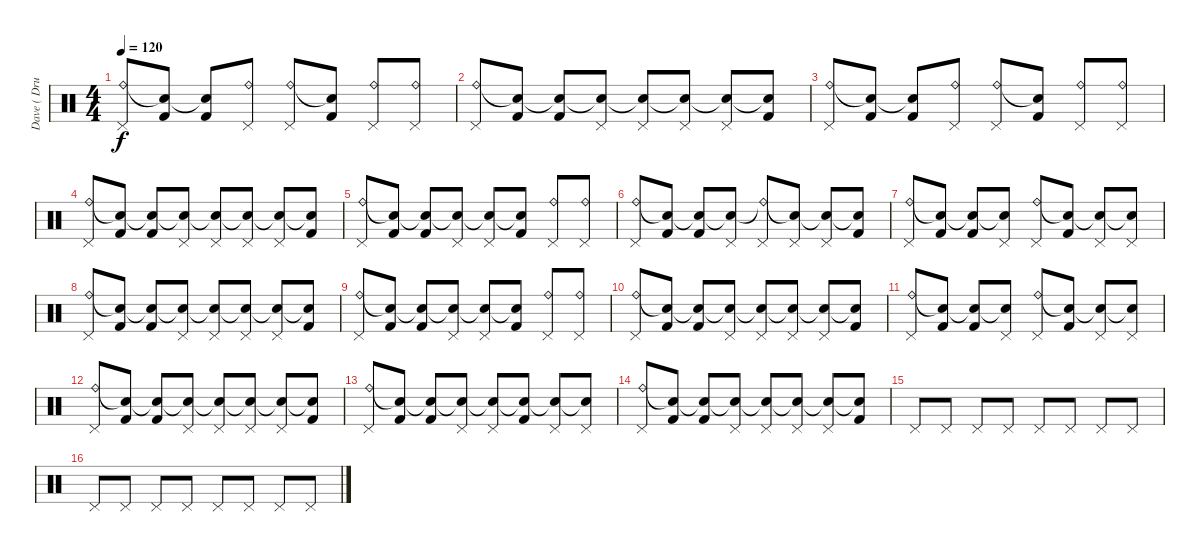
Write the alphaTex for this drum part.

\track ("Dave ( Drumm )" "Dave ( Dru") {instrument percussion}
\staff {score}
\articulation defaults
\ts (4 4)
\tempo 120
\clef neutral
\ks c
("Pedal Hi-Hat (hit)" "Ride (bell)").8{dy f} ("Kick (hit) 2" "Snare (hit)"{t}).8 ("Kick (hit) 2" "Snare (hit)"{t}).8 ("Pedal Hi-Hat (hit)" "Ride (bell)").8 ("Pedal Hi-Hat (hit)" "Ride (bell)").8 ("Kick (hit) 2" "Snare (hit)"{t}).8 ("Pedal Hi-Hat (hit)" "Ride (bell)").8 ("Pedal Hi-Hat (hit)" "Ride (bell)").8 |
("Pedal Hi-Hat (hit)" "Ride (bell)").8 ("Kick (hit) 2" "Snare (hit)"{t}).8 ("Kick (hit) 2" "Snare (hit)"{t}).8 ("Pedal Hi-Hat (hit)" "Snare (hit)"{t}).8 ("Pedal Hi-Hat (hit)" "Snare (hit)"{t}).8 ("Pedal Hi-Hat (hit)" "Snare (hit)"{t}).8 ("Pedal Hi-Hat (hit)" "Snare (hit)"{t}).8 ("Kick (hit) 2" "Snare (hit)"{t}).8 |
("Pedal Hi-Hat (hit)" "Ride (bell)").8 ("Kick (hit) 2" "Snare (hit)"{t}).8 ("Kick (hit) 2" "Snare (hit)"{t}).8 ("Pedal Hi-Hat (hit)" "Ride (bell)").8 ("Pedal Hi-Hat (hit)" "Ride (bell)").8 ("Kick (hit) 2" "Snare (hit)"{t}).8 ("Pedal Hi-Hat (hit)" "Ride (bell)").8 ("Pedal Hi-Hat (hit)" "Ride (bell)").8 |
("Pedal Hi-Hat (hit)" "Ride (bell)").8 ("Kick (hit) 2" "Snare (hit)"{t}).8 ("Kick (hit) 2" "Snare (hit)"{t}).8 ("Pedal Hi-Hat (hit)" "Snare (hit)"{t}).8 ("Pedal Hi-Hat (hit)" "Snare (hit)"{t}).8 ("Pedal Hi-Hat (hit)" "Snare (hit)"{t}).8 ("Pedal Hi-Hat (hit)" "Snare (hit)"{t}).8 ("Kick (hit) 2" "Snare (hit)"{t}).8 |
("Pedal Hi-Hat (hit)" "Ride (bell)").8 ("Kick (hit) 2" "Snare (hit)"{t}).8 ("Kick (hit) 2" "Snare (hit)"{t}).8 ("Pedal Hi-Hat (hit)" "Snare (hit)"{t}).8 ("Pedal Hi-Hat (hit)" "Snare (hit)"{t}).8 ("Kick (hit) 2" "Snare (hit)"{t}).8 ("Pedal Hi-Hat (hit)" "Ride (bell)").8 ("Pedal Hi-Hat (hit)" "Ride (bell)").8 |
("Pedal Hi-Hat (hit)" "Ride (bell)").8 ("Kick (hit) 2" "Snare (hit)"{t}).8 ("Kick (hit) 2" "Snare (hit)"{t}).8 ("Pedal Hi-Hat (hit)" "Snare (hit)"{t}).8 ("Pedal Hi-Hat (hit)" "Ride (bell)"{t}).8 ("Pedal Hi-Hat (hit)" "Snare (hit)"{t}).8 ("Pedal Hi-Hat (hit)" "Snare (hit)"{t}).8 ("Kick (hit) 2" "Snare (hit)"{t}).8 |
("Pedal Hi-Hat (hit)" "Ride (bell)").8 ("Kick (hit) 2" "Snare (hit)"{t}).8 ("Kick (hit) 2" "Snare (hit)"{t}).8 ("Pedal Hi-Hat (hit)" "Snare (hit)"{t}).8 ("Pedal Hi-Hat (hit)" "Ride (bell)").8 ("Kick (hit) 2" "Snare (hit)"{t}).8 ("Pedal Hi-Hat (hit)" "Snare (hit)"{t}).8 ("Pedal Hi-Hat (hit)" "Snare (hit)"{t}).8 |
("Pedal Hi-Hat (hit)" "Ride (bell)").8 ("Kick (hit) 2" "Snare (hit)"{t}).8 ("Kick (hit) 2" "Snare (hit)"{t}).8 ("Pedal Hi-Hat (hit)" "Snare (hit)"{t}).8 ("Pedal Hi-Hat (hit)" "Snare (hit)"{t}).8 ("Pedal Hi-Hat (hit)" "Snare (hit)"{t}).8 ("Pedal Hi-Hat (hit)" "Snare (hit)"{t}).8 ("Kick (hit) 2" "Snare (hit)"{t}).8 |
("Pedal Hi-Hat (hit)" "Ride (bell)").8 ("Kick (hit) 2" "Snare (hit)"{t}).8 ("Kick (hit) 2" "Snare (hit)"{t}).8 ("Pedal Hi-Hat (hit)" "Snare (hit)"{t}).8 ("Pedal Hi-Hat (hit)" "Snare (hit)"{t}).8 ("Kick (hit) 2" "Snare (hit)"{t}).8 ("Pedal Hi-Hat (hit)" "Ride (bell)").8 ("Pedal Hi-Hat (hit)" "Ride (bell)").8 |
("Pedal Hi-Hat (hit)" "Ride (bell)").8 ("Kick (hit) 2" "Snare (hit)"{t}).8 ("Kick (hit) 2" "Snare (hit)"{t}).8 ("Pedal Hi-Hat (hit)" "Snare (hit)"{t}).8 ("Pedal Hi-Hat (hit)" "Snare (hit)"{t}).8 ("Pedal Hi-Hat (hit)" "Snare (hit)"{t}).8 ("Pedal Hi-Hat (hit)" "Snare (hit)"{t}).8 ("Kick (hit) 2" "Snare (hit)"{t}).8 |
("Pedal Hi-Hat (hit)" "Ride (bell)").8 ("Kick (hit) 2" "Snare (hit)"{t}).8 ("Kick (hit) 2" "Snare (hit)"{t}).8 ("Pedal Hi-Hat (hit)" "Snare (hit)"{t}).8 ("Pedal Hi-Hat (hit)" "Ride (bell)").8 ("Kick (hit) 2" "Snare (hit)"{t}).8 ("Pedal Hi-Hat (hit)" "Snare (hit)"{t}).8 ("Pedal Hi-Hat (hit)" "Snare (hit)"{t}).8 |
("Pedal Hi-Hat (hit)" "Ride (bell)").8 ("Kick (hit) 2" "Snare (hit)"{t}).8 ("Kick (hit) 2" "Snare (hit)"{t}).8 ("Pedal Hi-Hat (hit)" "Snare (hit)"{t}).8 ("Pedal Hi-Hat (hit)" "Snare (hit)"{t}).8 ("Pedal Hi-Hat (hit)" "Snare (hit)"{t}).8 ("Pedal Hi-Hat (hit)" "Snare (hit)"{t}).8 ("Kick (hit) 2" "Snare (hit)"{t}).8 |
("Pedal Hi-Hat (hit)" "Ride (bell)").8 ("Kick (hit) 2" "Snare (hit)"{t}).8 ("Kick (hit) 2" "Snare (hit)"{t}).8 ("Pedal Hi-Hat (hit)" "Snare (hit)"{t}).8 ("Pedal Hi-Hat (hit)" "Snare (hit)"{t}).8 ("Kick (hit) 2" "Snare (hit)"{t}).8 ("Pedal Hi-Hat (hit)" "Snare (hit)"{t}).8 ("Pedal Hi-Hat (hit)" "Snare (hit)"{t}).8 |
("Pedal Hi-Hat (hit)" "Ride (bell)").8 ("Kick (hit) 2" "Snare (hit)"{t}).8 ("Kick (hit) 2" "Snare (hit)"{t}).8 ("Pedal Hi-Hat (hit)" "Snare (hit)"{t}).8 ("Pedal Hi-Hat (hit)" "Snare (hit)"{t}).8 ("Pedal Hi-Hat (hit)" "Snare (hit)"{t}).8 ("Pedal Hi-Hat (hit)" "Snare (hit)"{t}).8 ("Kick (hit) 2" "Snare (hit)"{t}).8 |
"Pedal Hi-Hat (hit)".8 "Pedal Hi-Hat (hit)".8 "Pedal Hi-Hat (hit)".8 "Pedal Hi-Hat (hit)".8 "Pedal Hi-Hat (hit)".8 "Pedal Hi-Hat (hit)".8 "Pedal Hi-Hat (hit)".8 "Pedal Hi-Hat (hit)".8 |
"Pedal Hi-Hat (hit)".8 "Pedal Hi-Hat (hit)".8 "Pedal Hi-Hat (hit)".8 "Pedal Hi-Hat (hit)".8 "Pedal Hi-Hat (hit)".8 "Pedal Hi-Hat (hit)".8 "Pedal Hi-Hat (hit)".8 "Pedal Hi-Hat (hit)".8
